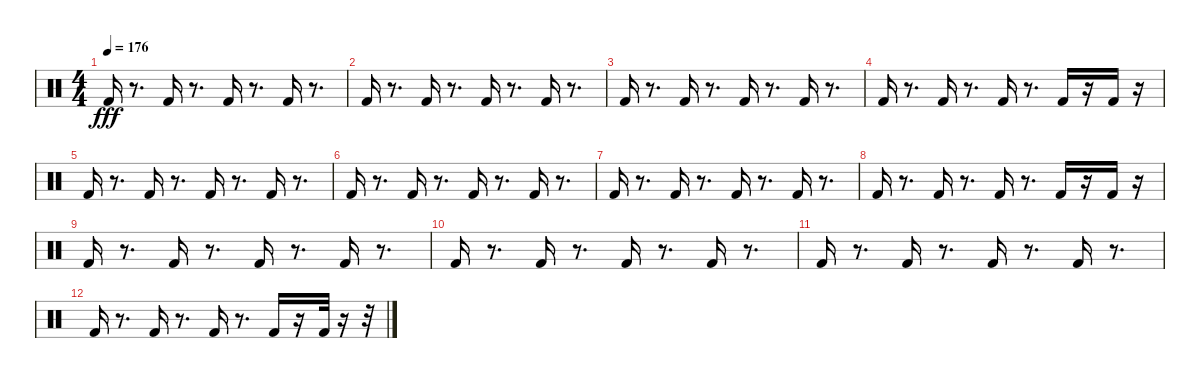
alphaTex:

\track "" {instrument percussion}
\staff {score}
\articulation defaults
\ts (4 4)
\tempo 176
\clef neutral
\ks c "Kick (hit) 2".16{dy fff}
r.8{d} "Kick (hit) 2".16 r.8{d} "Kick (hit) 2".16 r.8{d} "Kick (hit) 2".16 r.8{d} |
"Kick (hit) 2".16 r.8{d} "Kick (hit) 2".16 r.8{d} "Kick (hit) 2".16 r.8{d} "Kick (hit) 2".16 r.8{d} |
"Kick (hit) 2".16 r.8{d} "Kick (hit) 2".16 r.8{d} "Kick (hit) 2".16 r.8{d} "Kick (hit) 2".16 r.8{d} |
"Kick (hit) 2".16 r.8{d} "Kick (hit) 2".16 r.8{d} "Kick (hit) 2".16 r.8{d} "Kick (hit) 2".16 r.16 "Kick (hit) 2".16 r.16 |
"Kick (hit) 2".16 r.8{d} "Kick (hit) 2".16 r.8{d} "Kick (hit) 2".16 r.8{d} "Kick (hit) 2".16 r.8{d} |
"Kick (hit) 2".16 r.8{d} "Kick (hit) 2".16 r.8{d} "Kick (hit) 2".16 r.8{d} "Kick (hit) 2".16 r.8{d} |
"Kick (hit) 2".16 r.8{d} "Kick (hit) 2".16 r.8{d} "Kick (hit) 2".16 r.8{d} "Kick (hit) 2".16 r.8{d} |
"Kick (hit) 2".16 r.8{d} "Kick (hit) 2".16 r.8{d} "Kick (hit) 2".16 r.8{d} "Kick (hit) 2".16 r.16 "Kick (hit) 2".16 r.16 |
"Kick (hit) 2".16 r.8{d} "Kick (hit) 2".16 r.8{d} "Kick (hit) 2".16 r.8{d} "Kick (hit) 2".16 r.8{d} |
"Kick (hit) 2".16 r.8{d} "Kick (hit) 2".16 r.8{d} "Kick (hit) 2".16 r.8{d} "Kick (hit) 2".16 r.8{d} |
"Kick (hit) 2".16 r.8{d} "Kick (hit) 2".16 r.8{d} "Kick (hit) 2".16 r.8{d} "Kick (hit) 2".16 r.8{d} |
"Kick (hit) 2".16 r.8{d} "Kick (hit) 2".16 r.8{d} "Kick (hit) 2".16 r.8{d} "Kick (hit) 2".16 r.16 "Kick (hit) 2".32 r.16 r.32
